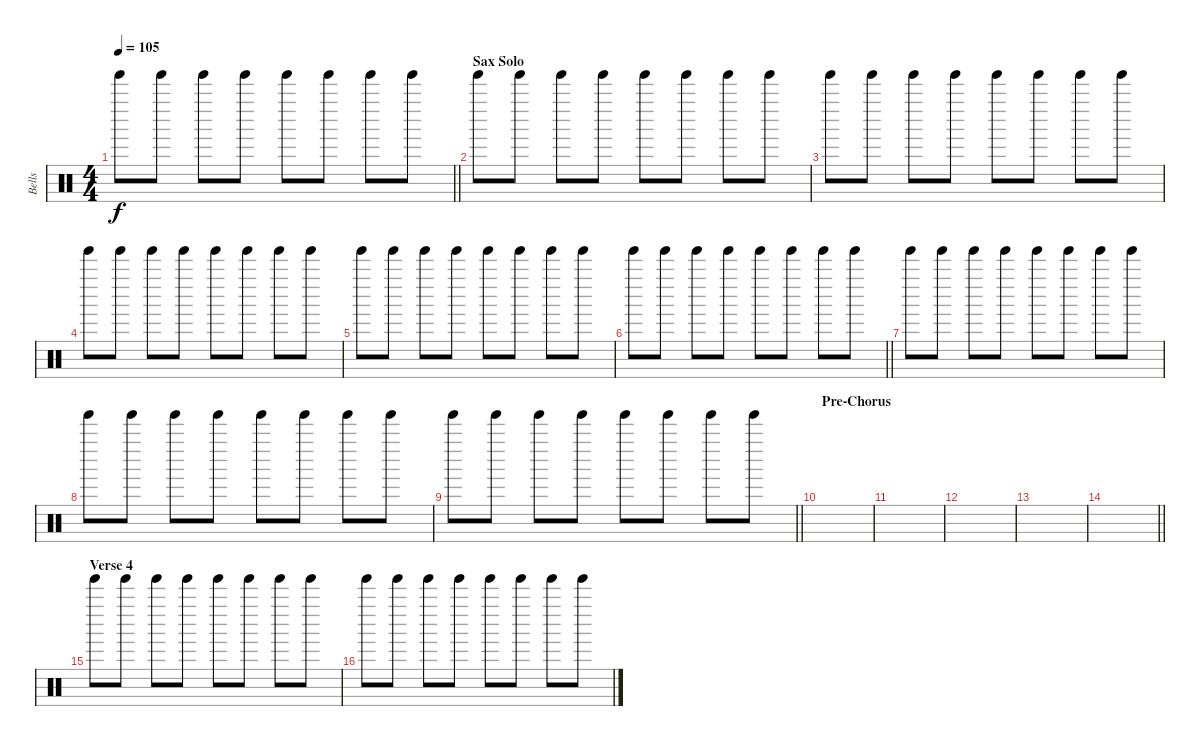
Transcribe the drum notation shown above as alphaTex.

\track ("Bells" "Bells") {instrument percussion}
\staff {score}
\articulation defaults
\ts (4 4)
\tempo 105
\clef neutral
\barLineRight lightlight
\ks c "Tinkle Bell (hit)".8{dy f} "Tinkle Bell (hit)".8 "Tinkle Bell (hit)".8 "Tinkle Bell (hit)".8 "Tinkle Bell (hit)".8 "Tinkle Bell (hit)".8 "Tinkle Bell (hit)".8 "Tinkle Bell (hit)".8
|
\section ("" "Sax Solo")
"Tinkle Bell (hit)".8 "Tinkle Bell (hit)".8 "Tinkle Bell (hit)".8 "Tinkle Bell (hit)".8 "Tinkle Bell (hit)".8 "Tinkle Bell (hit)".8 "Tinkle Bell (hit)".8 "Tinkle Bell (hit)".8 |
"Tinkle Bell (hit)".8 "Tinkle Bell (hit)".8 "Tinkle Bell (hit)".8 "Tinkle Bell (hit)".8 "Tinkle Bell (hit)".8 "Tinkle Bell (hit)".8 "Tinkle Bell (hit)".8 "Tinkle Bell (hit)".8 |
"Tinkle Bell (hit)".8 "Tinkle Bell (hit)".8 "Tinkle Bell (hit)".8 "Tinkle Bell (hit)".8 "Tinkle Bell (hit)".8 "Tinkle Bell (hit)".8 "Tinkle Bell (hit)".8 "Tinkle Bell (hit)".8 |
"Tinkle Bell (hit)".8 "Tinkle Bell (hit)".8 "Tinkle Bell (hit)".8 "Tinkle Bell (hit)".8 "Tinkle Bell (hit)".8 "Tinkle Bell (hit)".8 "Tinkle Bell (hit)".8 "Tinkle Bell (hit)".8 |
\barLineRight lightlight "Tinkle Bell (hit)".8 "Tinkle Bell (hit)".8 "Tinkle Bell (hit)".8 "Tinkle Bell (hit)".8 "Tinkle Bell (hit)".8 "Tinkle Bell (hit)".8 "Tinkle Bell (hit)".8 "Tinkle Bell (hit)".8
|
"Tinkle Bell (hit)".8 "Tinkle Bell (hit)".8 "Tinkle Bell (hit)".8 "Tinkle Bell (hit)".8 "Tinkle Bell (hit)".8 "Tinkle Bell (hit)".8 "Tinkle Bell (hit)".8 "Tinkle Bell (hit)".8 |
"Tinkle Bell (hit)".8 "Tinkle Bell (hit)".8 "Tinkle Bell (hit)".8 "Tinkle Bell (hit)".8 "Tinkle Bell (hit)".8 "Tinkle Bell (hit)".8 "Tinkle Bell (hit)".8 "Tinkle Bell (hit)".8 |
\barLineRight lightlight "Tinkle Bell (hit)".8 "Tinkle Bell (hit)".8 "Tinkle Bell (hit)".8 "Tinkle Bell (hit)".8 "Tinkle Bell (hit)".8 "Tinkle Bell (hit)".8 "Tinkle Bell (hit)".8 "Tinkle Bell (hit)".8
|
\section ("" "Pre-Chorus")
|
|
|
|
\barLineRight lightlight
|
\section ("" "Verse 4")
"Tinkle Bell (hit)".8 "Tinkle Bell (hit)".8 "Tinkle Bell (hit)".8 "Tinkle Bell (hit)".8 "Tinkle Bell (hit)".8 "Tinkle Bell (hit)".8 "Tinkle Bell (hit)".8 "Tinkle Bell (hit)".8 |
"Tinkle Bell (hit)".8 "Tinkle Bell (hit)".8 "Tinkle Bell (hit)".8 "Tinkle Bell (hit)".8 "Tinkle Bell (hit)".8 "Tinkle Bell (hit)".8 "Tinkle Bell (hit)".8 "Tinkle Bell (hit)".8
